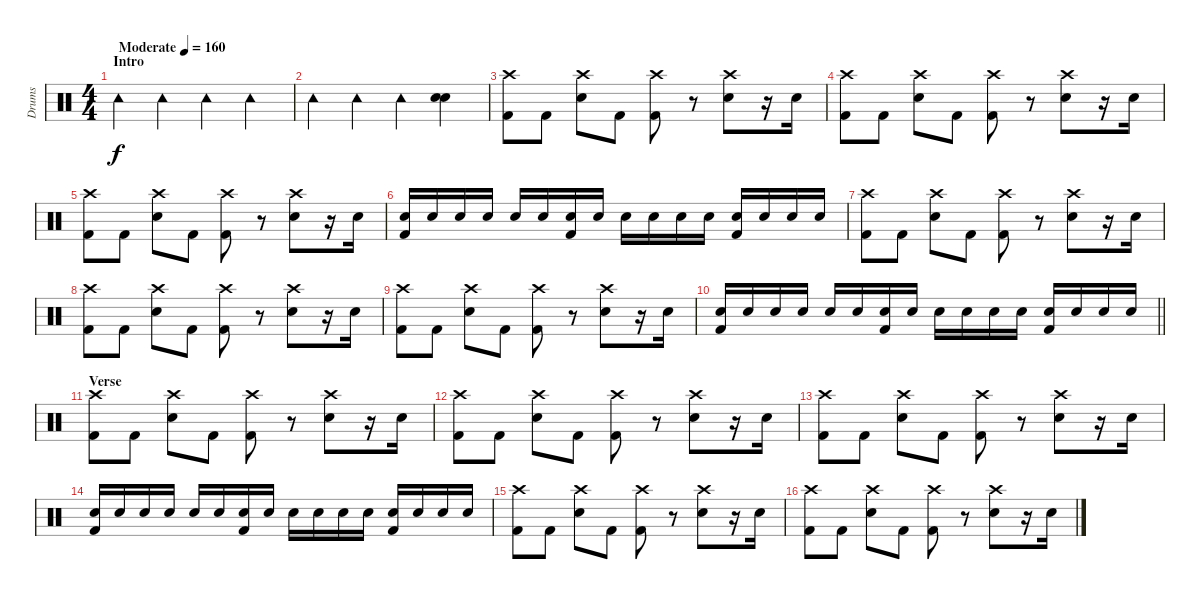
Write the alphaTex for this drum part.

\track ("Drums" "Drums") {instrument percussion}
\staff {score}
\articulation defaults
\ts (4 4)
\section ("" "Intro")
\tempo (160 "Moderate")
\clef neutral
\ks c "Tambourine (hit)".4{dy f} "Tambourine (hit)".4 "Tambourine (hit)".4 "Tambourine (hit)".4
|
"Tambourine (hit)".4 "Tambourine (hit)".4 "Tambourine (hit)".4 ("Snare (hit) 2" "Snare (hit) 2").4 |
("Crash high (hit)" "Kick (hit) 2").8 "Kick (hit) 2".8 ("Crash high (hit)" "Snare (hit) 2").8 "Kick (hit) 2".8 ("Crash high (hit)" "Kick (hit) 2").8 r.8 ("Crash high (hit)" "Snare (hit) 2").8 r.16 "Snare (hit) 2".16 |
("Crash high (hit)" "Kick (hit) 2").8 "Kick (hit) 2".8 ("Crash high (hit)" "Snare (hit) 2").8 "Kick (hit) 2".8 ("Crash high (hit)" "Kick (hit) 2").8 r.8 ("Crash high (hit)" "Snare (hit) 2").8 r.16 "Snare (hit) 2".16 |
("Crash high (hit)" "Kick (hit) 2").8 "Kick (hit) 2".8 ("Crash high (hit)" "Snare (hit) 2").8 "Kick (hit) 2".8 ("Crash high (hit)" "Kick (hit) 2").8 r.8 ("Crash high (hit)" "Snare (hit) 2").8 r.16 "Snare (hit) 2".16 |
("Snare (hit) 2" "Kick (hit) 2").16 "Snare (hit) 2".16 "Snare (hit) 2".16 "Snare (hit) 2".16 "Snare (hit) 2".16 "Snare (hit) 2".16 ("Snare (hit) 2" "Kick (hit) 2").16 "Snare (hit) 2".16 "Snare (hit) 2".16 "Snare (hit) 2".16 "Snare (hit) 2".16 "Snare (hit) 2".16 ("Snare (hit) 2" "Kick (hit) 2").16 "Snare (hit) 2".16 "Snare (hit) 2".16 "Snare (hit) 2".16 |
("Crash high (hit)" "Kick (hit) 2").8 "Kick (hit) 2".8 ("Crash high (hit)" "Snare (hit) 2").8 "Kick (hit) 2".8 ("Crash high (hit)" "Kick (hit) 2").8 r.8 ("Crash high (hit)" "Snare (hit) 2").8 r.16 "Snare (hit) 2".16 |
("Crash high (hit)" "Kick (hit) 2").8 "Kick (hit) 2".8 ("Crash high (hit)" "Snare (hit) 2").8 "Kick (hit) 2".8 ("Crash high (hit)" "Kick (hit) 2").8 r.8 ("Crash high (hit)" "Snare (hit) 2").8 r.16 "Snare (hit) 2".16 |
("Crash high (hit)" "Kick (hit) 2").8 "Kick (hit) 2".8 ("Crash high (hit)" "Snare (hit) 2").8 "Kick (hit) 2".8 ("Crash high (hit)" "Kick (hit) 2").8 r.8 ("Crash high (hit)" "Snare (hit) 2").8 r.16 "Snare (hit) 2".16 |
\barLineRight lightlight
("Snare (hit) 2" "Kick (hit) 2").16 "Snare (hit) 2".16 "Snare (hit) 2".16 "Snare (hit) 2".16 "Snare (hit) 2".16 "Snare (hit) 2".16 ("Snare (hit) 2" "Kick (hit) 2").16 "Snare (hit) 2".16 "Snare (hit) 2".16 "Snare (hit) 2".16 "Snare (hit) 2".16 "Snare (hit) 2".16 ("Snare (hit) 2" "Kick (hit) 2").16 "Snare (hit) 2".16 "Snare (hit) 2".16 "Snare (hit) 2".16 |
\section ("" "Verse")
("Crash high (hit)" "Kick (hit) 2").8 "Kick (hit) 2".8 ("Crash high (hit)" "Snare (hit) 2").8 "Kick (hit) 2".8 ("Crash high (hit)" "Kick (hit) 2").8 r.8 ("Crash high (hit)" "Snare (hit) 2").8 r.16 "Snare (hit) 2".16 |
("Crash high (hit)" "Kick (hit) 2").8 "Kick (hit) 2".8 ("Crash high (hit)" "Snare (hit) 2").8 "Kick (hit) 2".8 ("Crash high (hit)" "Kick (hit) 2").8 r.8 ("Crash high (hit)" "Snare (hit) 2").8 r.16 "Snare (hit) 2".16 |
("Crash high (hit)" "Kick (hit) 2").8 "Kick (hit) 2".8 ("Crash high (hit)" "Snare (hit) 2").8 "Kick (hit) 2".8 ("Crash high (hit)" "Kick (hit) 2").8 r.8 ("Crash high (hit)" "Snare (hit) 2").8 r.16 "Snare (hit) 2".16 |
("Snare (hit) 2" "Kick (hit) 2").16 "Snare (hit) 2".16 "Snare (hit) 2".16 "Snare (hit) 2".16 "Snare (hit) 2".16 "Snare (hit) 2".16 ("Snare (hit) 2" "Kick (hit) 2").16 "Snare (hit) 2".16 "Snare (hit) 2".16 "Snare (hit) 2".16 "Snare (hit) 2".16 "Snare (hit) 2".16 ("Snare (hit) 2" "Kick (hit) 2").16 "Snare (hit) 2".16 "Snare (hit) 2".16 "Snare (hit) 2".16 |
("Crash high (hit)" "Kick (hit) 2").8 "Kick (hit) 2".8 ("Crash high (hit)" "Snare (hit) 2").8 "Kick (hit) 2".8 ("Crash high (hit)" "Kick (hit) 2").8 r.8 ("Crash high (hit)" "Snare (hit) 2").8 r.16 "Snare (hit) 2".16 |
("Crash high (hit)" "Kick (hit) 2").8 "Kick (hit) 2".8 ("Crash high (hit)" "Snare (hit) 2").8 "Kick (hit) 2".8 ("Crash high (hit)" "Kick (hit) 2").8 r.8 ("Crash high (hit)" "Snare (hit) 2").8 r.16 "Snare (hit) 2".16
